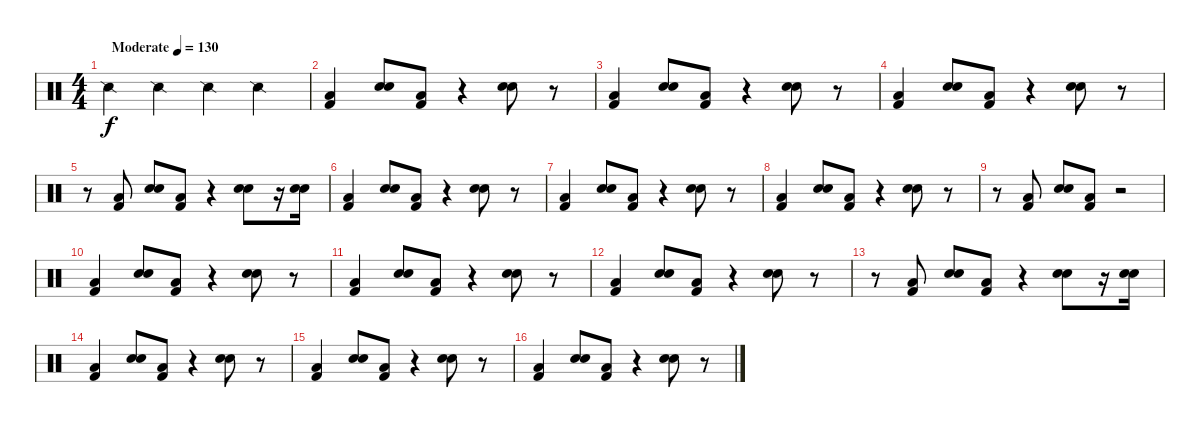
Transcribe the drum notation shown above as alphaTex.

\track "" {instrument percussion}
\staff {score}
\articulation defaults
\ts (4 4)
\tempo (130 "Moderate")
\clef neutral
\ks c "Snare (side stick) 2".4{dy f} "Snare (side stick) 2".4 "Snare (side stick) 2".4 "Snare (side stick) 2".4
|
("Kick (hit) 2" "Low Floor Tom (hit)").4 ("Snare (hit) 2" "Hand Clap (hit)").8 ("Kick (hit) 2" "Low Floor Tom (hit)").8 r.4 ("Snare (hit) 2" "Hand Clap (hit)").8 r.8 |
("Kick (hit) 2" "Low Floor Tom (hit)").4 ("Snare (hit) 2" "Hand Clap (hit)").8 ("Kick (hit) 2" "Low Floor Tom (hit)").8 r.4 ("Snare (hit) 2" "Hand Clap (hit)").8 r.8 |
("Kick (hit) 2" "Low Floor Tom (hit)").4 ("Snare (hit) 2" "Hand Clap (hit)").8 ("Kick (hit) 2" "Low Floor Tom (hit)").8 r.4 ("Snare (hit) 2" "Hand Clap (hit)").8 r.8 |
r.8 ("Kick (hit) 2" "Low Floor Tom (hit)").8 ("Snare (hit) 2" "Hand Clap (hit)").8 ("Kick (hit) 2" "Low Floor Tom (hit)").8 r.4 ("Snare (hit) 2" "Hand Clap (hit)").8 r.16 ("Snare (hit) 2" "Hand Clap (hit)").16 |
("Kick (hit) 2" "Low Floor Tom (hit)").4 ("Snare (hit) 2" "Hand Clap (hit)").8 ("Kick (hit) 2" "Low Floor Tom (hit)").8 r.4 ("Snare (hit) 2" "Hand Clap (hit)").8 r.8 |
("Kick (hit) 2" "Low Floor Tom (hit)").4 ("Snare (hit) 2" "Hand Clap (hit)").8 ("Kick (hit) 2" "Low Floor Tom (hit)").8 r.4 ("Snare (hit) 2" "Hand Clap (hit)").8 r.8 |
("Kick (hit) 2" "Low Floor Tom (hit)").4 ("Snare (hit) 2" "Hand Clap (hit)").8 ("Kick (hit) 2" "Low Floor Tom (hit)").8 r.4 ("Snare (hit) 2" "Hand Clap (hit)").8 r.8 |
r.8 ("Kick (hit) 2" "Low Floor Tom (hit)").8 ("Snare (hit) 2" "Hand Clap (hit)").8 ("Kick (hit) 2" "Low Floor Tom (hit)").8 r.2 |
("Kick (hit) 2" "Low Floor Tom (hit)").4 ("Snare (hit) 2" "Hand Clap (hit)").8 ("Kick (hit) 2" "Low Floor Tom (hit)").8 r.4 ("Snare (hit) 2" "Hand Clap (hit)").8 r.8 |
("Kick (hit) 2" "Low Floor Tom (hit)").4 ("Snare (hit) 2" "Hand Clap (hit)").8 ("Kick (hit) 2" "Low Floor Tom (hit)").8 r.4 ("Snare (hit) 2" "Hand Clap (hit)").8 r.8 |
("Kick (hit) 2" "Low Floor Tom (hit)").4 ("Snare (hit) 2" "Hand Clap (hit)").8 ("Kick (hit) 2" "Low Floor Tom (hit)").8 r.4 ("Snare (hit) 2" "Hand Clap (hit)").8 r.8 |
r.8 ("Kick (hit) 2" "Low Floor Tom (hit)").8 ("Snare (hit) 2" "Hand Clap (hit)").8 ("Kick (hit) 2" "Low Floor Tom (hit)").8 r.4 ("Snare (hit) 2" "Hand Clap (hit)").8 r.16 ("Snare (hit) 2" "Hand Clap (hit)").16 |
("Kick (hit) 2" "Low Floor Tom (hit)").4 ("Snare (hit) 2" "Hand Clap (hit)").8 ("Kick (hit) 2" "Low Floor Tom (hit)").8 r.4 ("Snare (hit) 2" "Hand Clap (hit)").8 r.8 |
("Kick (hit) 2" "Low Floor Tom (hit)").4 ("Snare (hit) 2" "Hand Clap (hit)").8 ("Kick (hit) 2" "Low Floor Tom (hit)").8 r.4 ("Snare (hit) 2" "Hand Clap (hit)").8 r.8 |
("Kick (hit) 2" "Low Floor Tom (hit)").4 ("Snare (hit) 2" "Hand Clap (hit)").8 ("Kick (hit) 2" "Low Floor Tom (hit)").8 r.4 ("Snare (hit) 2" "Hand Clap (hit)").8 r.8
